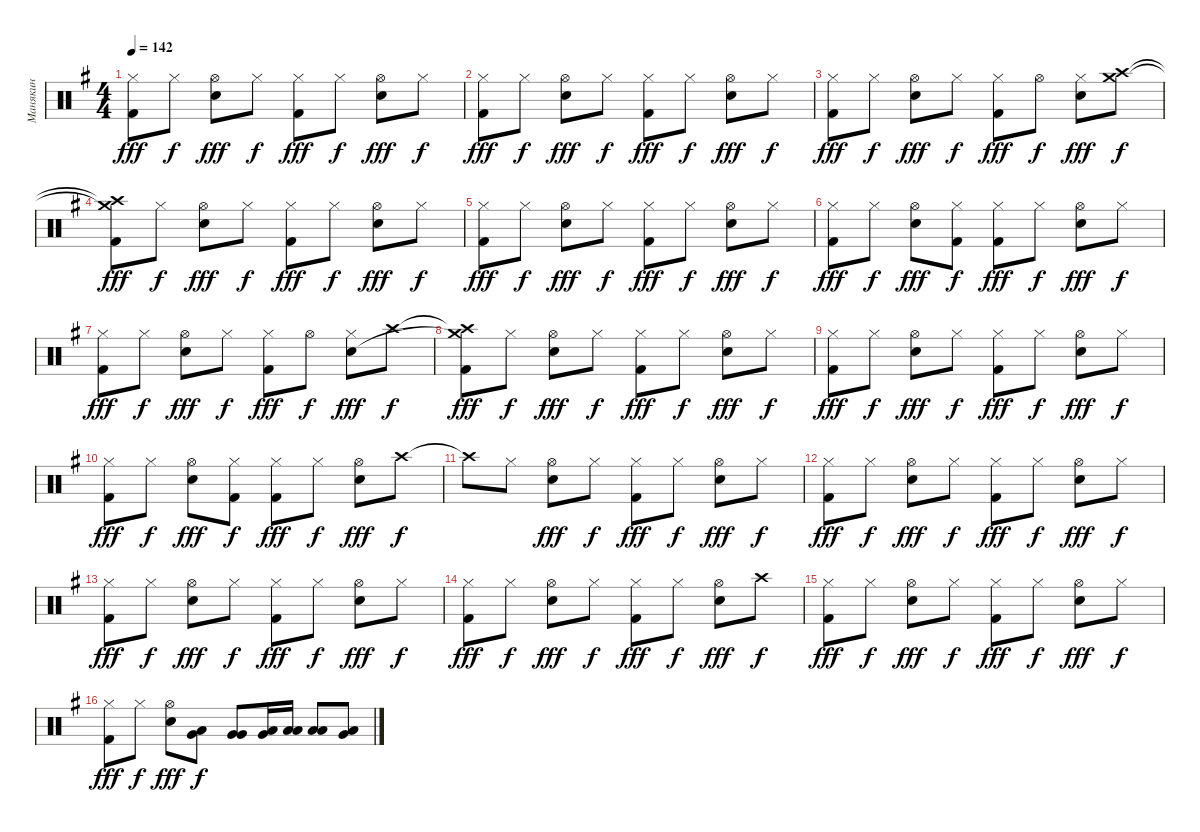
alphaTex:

\track ("Манякин" "Манякин") {instrument percussion}
\staff {score}
\articulation defaults
\ts (4 4)
\tempo 142
\clef neutral
\ks eminor
("Hi-Hat (closed)" "Kick (hit) 2").8{dy fff} "Hi-Hat (closed)".8{dy f} ("Hi-Hat (open)" "Electric Snare (hit)").8{dy fff} "Hi-Hat (closed)".8{dy f} ("Hi-Hat (closed)" "Kick (hit) 2").8{dy fff} "Hi-Hat (closed)".8{dy f} ("Hi-Hat (open)" "Electric Snare (hit)").8{dy fff} "Hi-Hat (closed)".8{dy f} |
("Hi-Hat (closed)" "Kick (hit) 2").8{dy fff} "Hi-Hat (closed)".8{dy f} ("Hi-Hat (open)" "Electric Snare (hit)").8{dy fff} "Hi-Hat (closed)".8{dy f} ("Hi-Hat (closed)" "Kick (hit) 2").8{dy fff} "Hi-Hat (closed)".8{dy f} ("Hi-Hat (open)" "Electric Snare (hit)").8{dy fff} "Hi-Hat (closed)".8{dy f} |
("Hi-Hat (closed)" "Kick (hit) 2").8{dy fff} "Hi-Hat (closed)".8{dy f} ("Hi-Hat (open)" "Electric Snare (hit)").8{dy fff} "Hi-Hat (closed)".8{dy f} ("Hi-Hat (closed)" "Kick (hit) 2").8{dy fff} "Hi-Hat (open)".8{dy f} ("Hi-Hat (closed)" "Electric Snare (hit)").8{dy fff} ("Crash high (hit)" "Crash medium (hit)").8{dy f} |
("Crash high (hit)"{t} "Crash medium (hit)"{t} "Kick (hit) 2").8{dy fff} "Hi-Hat (closed)".8{dy f} ("Hi-Hat (open)" "Electric Snare (hit)").8{dy fff} "Hi-Hat (closed)".8{dy f} ("Hi-Hat (closed)" "Kick (hit) 2").8{dy fff} "Hi-Hat (closed)".8{dy f} ("Hi-Hat (open)" "Electric Snare (hit)").8{dy fff} "Hi-Hat (closed)".8{dy f} |
("Hi-Hat (closed)" "Kick (hit) 2").8{dy fff} "Hi-Hat (closed)".8{dy f} ("Hi-Hat (open)" "Electric Snare (hit)").8{dy fff} "Hi-Hat (closed)".8{dy f} ("Hi-Hat (closed)" "Kick (hit) 2").8{dy fff} "Hi-Hat (closed)".8{dy f} ("Hi-Hat (open)" "Electric Snare (hit)").8{dy fff} "Hi-Hat (closed)".8{dy f} |
("Hi-Hat (closed)" "Kick (hit) 2").8{dy fff} "Hi-Hat (closed)".8{dy f} ("Hi-Hat (open)" "Electric Snare (hit)").8{dy fff} ("Hi-Hat (closed)" "Kick (hit) 2").8{dy f} ("Hi-Hat (closed)" "Kick (hit) 2").8{dy fff} "Hi-Hat (closed)".8{dy f} ("Hi-Hat (open)" "Electric Snare (hit)").8{dy fff} "Hi-Hat (closed)".8{dy f} |
("Hi-Hat (closed)" "Kick (hit) 2").8{dy fff} "Hi-Hat (closed)".8{dy f} ("Hi-Hat (open)" "Electric Snare (hit)").8{dy fff} "Hi-Hat (closed)".8{dy f} ("Hi-Hat (closed)" "Kick (hit) 2").8{dy fff} "Hi-Hat (open)".8{dy f} ("Hi-Hat (closed)" "Electric Snare (hit)").8{dy fff} "Crash high (hit)".8{dy f} |
("Crash high (hit)"{t} "Crash medium (hit)"{t} "Kick (hit) 2").8{dy fff} "Hi-Hat (closed)".8{dy f} ("Hi-Hat (open)" "Electric Snare (hit)").8{dy fff} "Hi-Hat (closed)".8{dy f} ("Hi-Hat (closed)" "Kick (hit) 2").8{dy fff} "Hi-Hat (closed)".8{dy f} ("Hi-Hat (open)" "Electric Snare (hit)").8{dy fff} "Hi-Hat (closed)".8{dy f} |
("Hi-Hat (closed)" "Kick (hit) 2").8{dy fff} "Hi-Hat (closed)".8{dy f} ("Hi-Hat (open)" "Electric Snare (hit)").8{dy fff} "Hi-Hat (closed)".8{dy f} ("Hi-Hat (closed)" "Kick (hit) 2").8{dy fff} "Hi-Hat (closed)".8{dy f} ("Hi-Hat (open)" "Electric Snare (hit)").8{dy fff} "Hi-Hat (closed)".8{dy f} |
("Hi-Hat (closed)" "Kick (hit) 2").8{dy fff} "Hi-Hat (closed)".8{dy f} ("Hi-Hat (open)" "Electric Snare (hit)").8{dy fff} ("Hi-Hat (closed)" "Kick (hit) 2").8{dy f} ("Hi-Hat (closed)" "Kick (hit) 2").8{dy fff} "Hi-Hat (closed)".8{dy f} ("Hi-Hat (open)" "Electric Snare (hit)").8{dy fff} "Crash high (hit)".8{dy f} |
"Crash high (hit)"{t}.8 "Hi-Hat (closed)".8 ("Hi-Hat (open)" "Electric Snare (hit)").8{dy fff} "Hi-Hat (closed)".8{dy f} ("Hi-Hat (closed)" "Kick (hit) 2").8{dy fff} "Hi-Hat (closed)".8{dy f} ("Hi-Hat (open)" "Electric Snare (hit)").8{dy fff} "Hi-Hat (closed)".8{dy f} |
("Hi-Hat (closed)" "Kick (hit) 2").8{dy fff} "Hi-Hat (closed)".8{dy f} ("Hi-Hat (open)" "Electric Snare (hit)").8{dy fff} "Hi-Hat (closed)".8{dy f} ("Hi-Hat (closed)" "Kick (hit) 2").8{dy fff} "Hi-Hat (closed)".8{dy f} ("Hi-Hat (open)" "Electric Snare (hit)").8{dy fff} "Hi-Hat (closed)".8{dy f} |
("Hi-Hat (closed)" "Kick (hit) 2").8{dy fff} "Hi-Hat (closed)".8{dy f} ("Hi-Hat (open)" "Electric Snare (hit)").8{dy fff} "Hi-Hat (closed)".8{dy f} ("Hi-Hat (closed)" "Kick (hit) 2").8{dy fff} "Hi-Hat (closed)".8{dy f} ("Hi-Hat (open)" "Electric Snare (hit)").8{dy fff} "Hi-Hat (closed)".8{dy f} |
("Hi-Hat (closed)" "Kick (hit) 2").8{dy fff} "Hi-Hat (closed)".8{dy f} ("Hi-Hat (open)" "Electric Snare (hit)").8{dy fff} "Hi-Hat (closed)".8{dy f} ("Hi-Hat (closed)" "Kick (hit) 2").8{dy fff} "Hi-Hat (closed)".8{dy f} ("Hi-Hat (open)" "Electric Snare (hit)").8{dy fff} "Crash high (hit)".8{dy f} |
("Hi-Hat (closed)" "Kick (hit) 2").8{dy fff} "Hi-Hat (closed)".8{dy f} ("Hi-Hat (open)" "Electric Snare (hit)").8{dy fff} "Hi-Hat (closed)".8{dy f} ("Hi-Hat (closed)" "Kick (hit) 2").8{dy fff} "Hi-Hat (closed)".8{dy f} ("Hi-Hat (open)" "Electric Snare (hit)").8{dy fff} "Hi-Hat (closed)".8{dy f} |
("Hi-Hat (closed)" "Kick (hit) 2").8{dy fff} "Hi-Hat (closed)".8{dy f} ("Hi-Hat (open)" "Electric Snare (hit)").8{dy fff} ("Low Floor Tom (hit)" "Very Low Tom (hit)").8{dy f} ("Very Low Tom (hit)" "Very Low Tom (hit)").8 ("Very Low Tom (hit)" "Low Floor Tom (hit)").16 ("Low Tom (hit)" "Low Floor Tom (hit)").16 ("Low Tom (hit)" "Low Floor Tom (hit)").8 ("Very Low Tom (hit)" "Low Floor Tom (hit)").8
